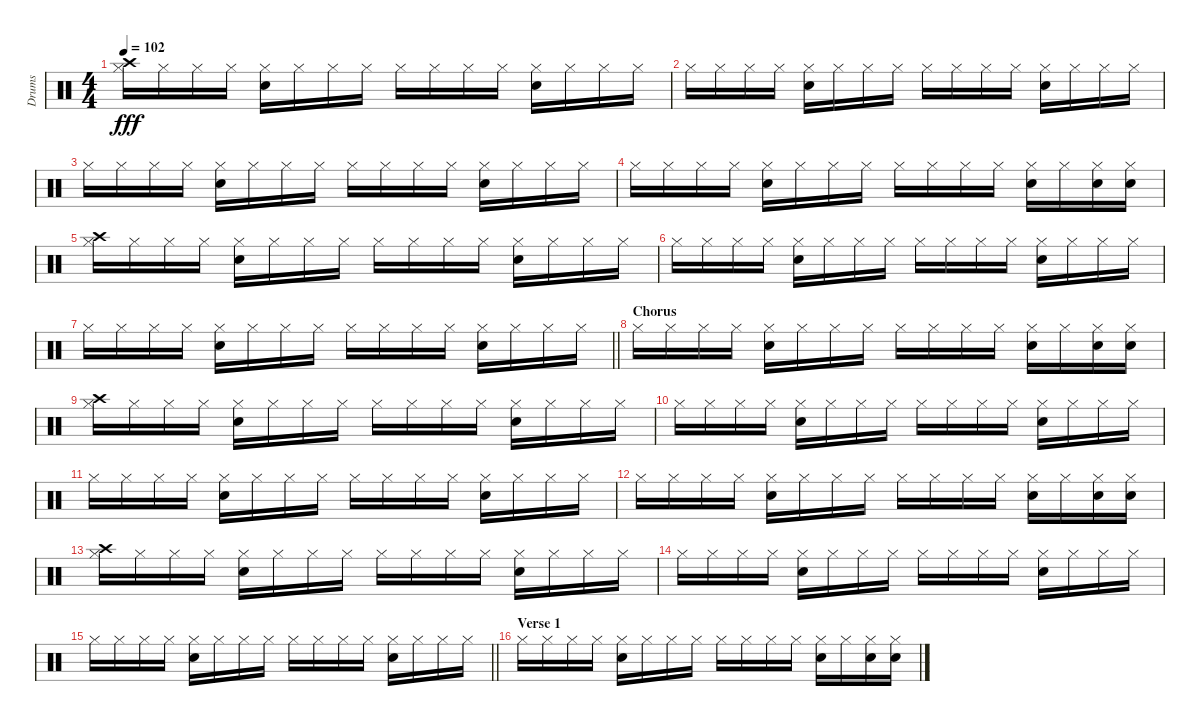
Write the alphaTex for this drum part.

\track ("Drums" "Drums") {instrument percussion}
\staff {score}
\articulation defaults
\ts (4 4)
\tempo 102
\clef neutral
\ks c
("Hi-Hat (closed)" "Crash high (hit)").16{dy fff} "Hi-Hat (closed)".16 "Hi-Hat (closed)".16 "Hi-Hat (closed)".16 ("Hi-Hat (closed)" "Hand Clap (hit)").16 "Hi-Hat (closed)".16 "Hi-Hat (closed)".16 "Hi-Hat (closed)".16 "Hi-Hat (closed)".16 "Hi-Hat (closed)".16 "Hi-Hat (closed)".16 "Hi-Hat (closed)".16 ("Hi-Hat (closed)" "Hand Clap (hit)").16 "Hi-Hat (closed)".16 "Hi-Hat (closed)".16 "Hi-Hat (closed)".16 |
"Hi-Hat (closed)".16 "Hi-Hat (closed)".16 "Hi-Hat (closed)".16 "Hi-Hat (closed)".16 ("Hi-Hat (closed)" "Hand Clap (hit)").16 "Hi-Hat (closed)".16 "Hi-Hat (closed)".16 "Hi-Hat (closed)".16 "Hi-Hat (closed)".16 "Hi-Hat (closed)".16 "Hi-Hat (closed)".16 "Hi-Hat (closed)".16 ("Hi-Hat (closed)" "Hand Clap (hit)").16 "Hi-Hat (closed)".16 "Hi-Hat (closed)".16 "Hi-Hat (closed)".16 |
"Hi-Hat (closed)".16 "Hi-Hat (closed)".16 "Hi-Hat (closed)".16 "Hi-Hat (closed)".16 ("Hi-Hat (closed)" "Hand Clap (hit)").16 "Hi-Hat (closed)".16 "Hi-Hat (closed)".16 "Hi-Hat (closed)".16 "Hi-Hat (closed)".16 "Hi-Hat (closed)".16 "Hi-Hat (closed)".16 "Hi-Hat (closed)".16 ("Hi-Hat (closed)" "Hand Clap (hit)").16 "Hi-Hat (closed)".16 "Hi-Hat (closed)".16 "Hi-Hat (closed)".16 |
"Hi-Hat (closed)".16 "Hi-Hat (closed)".16 "Hi-Hat (closed)".16 "Hi-Hat (closed)".16 ("Hi-Hat (closed)" "Hand Clap (hit)").16 "Hi-Hat (closed)".16 "Hi-Hat (closed)".16 "Hi-Hat (closed)".16 "Hi-Hat (closed)".16 "Hi-Hat (closed)".16 "Hi-Hat (closed)".16 "Hi-Hat (closed)".16 ("Hi-Hat (closed)" "Hand Clap (hit)").16 "Hi-Hat (closed)".16 ("Hi-Hat (closed)" "Hand Clap (hit)").16 ("Hi-Hat (closed)" "Hand Clap (hit)").16 |
("Hi-Hat (closed)" "Crash high (hit)").16 "Hi-Hat (closed)".16 "Hi-Hat (closed)".16 "Hi-Hat (closed)".16 ("Hi-Hat (closed)" "Hand Clap (hit)").16 "Hi-Hat (closed)".16 "Hi-Hat (closed)".16 "Hi-Hat (closed)".16 "Hi-Hat (closed)".16 "Hi-Hat (closed)".16 "Hi-Hat (closed)".16 "Hi-Hat (closed)".16 ("Hi-Hat (closed)" "Hand Clap (hit)").16 "Hi-Hat (closed)".16 "Hi-Hat (closed)".16 "Hi-Hat (closed)".16 |
"Hi-Hat (closed)".16 "Hi-Hat (closed)".16 "Hi-Hat (closed)".16 "Hi-Hat (closed)".16 ("Hi-Hat (closed)" "Hand Clap (hit)").16 "Hi-Hat (closed)".16 "Hi-Hat (closed)".16 "Hi-Hat (closed)".16 "Hi-Hat (closed)".16 "Hi-Hat (closed)".16 "Hi-Hat (closed)".16 "Hi-Hat (closed)".16 ("Hi-Hat (closed)" "Hand Clap (hit)").16 "Hi-Hat (closed)".16 "Hi-Hat (closed)".16 "Hi-Hat (closed)".16 |
\barLineRight lightlight "Hi-Hat (closed)".16 "Hi-Hat (closed)".16 "Hi-Hat (closed)".16 "Hi-Hat (closed)".16
("Hi-Hat (closed)" "Hand Clap (hit)").16 "Hi-Hat (closed)".16 "Hi-Hat (closed)".16 "Hi-Hat (closed)".16 "Hi-Hat (closed)".16 "Hi-Hat (closed)".16 "Hi-Hat (closed)".16 "Hi-Hat (closed)".16 ("Hi-Hat (closed)" "Hand Clap (hit)").16 "Hi-Hat (closed)".16 "Hi-Hat (closed)".16 "Hi-Hat (closed)".16 |
\section ("" "Chorus")
"Hi-Hat (closed)".16 "Hi-Hat (closed)".16 "Hi-Hat (closed)".16 "Hi-Hat (closed)".16 ("Hi-Hat (closed)" "Hand Clap (hit)").16 "Hi-Hat (closed)".16 "Hi-Hat (closed)".16 "Hi-Hat (closed)".16 "Hi-Hat (closed)".16 "Hi-Hat (closed)".16 "Hi-Hat (closed)".16 "Hi-Hat (closed)".16 ("Hi-Hat (closed)" "Hand Clap (hit)").16 "Hi-Hat (closed)".16 ("Hi-Hat (closed)" "Hand Clap (hit)").16 ("Hi-Hat (closed)" "Hand Clap (hit)").16 |
("Hi-Hat (closed)" "Crash high (hit)").16 "Hi-Hat (closed)".16 "Hi-Hat (closed)".16 "Hi-Hat (closed)".16 ("Hi-Hat (closed)" "Hand Clap (hit)").16 "Hi-Hat (closed)".16 "Hi-Hat (closed)".16 "Hi-Hat (closed)".16 "Hi-Hat (closed)".16 "Hi-Hat (closed)".16 "Hi-Hat (closed)".16 "Hi-Hat (closed)".16 ("Hi-Hat (closed)" "Hand Clap (hit)").16 "Hi-Hat (closed)".16 "Hi-Hat (closed)".16 "Hi-Hat (closed)".16 |
"Hi-Hat (closed)".16 "Hi-Hat (closed)".16 "Hi-Hat (closed)".16 "Hi-Hat (closed)".16 ("Hi-Hat (closed)" "Hand Clap (hit)").16 "Hi-Hat (closed)".16 "Hi-Hat (closed)".16 "Hi-Hat (closed)".16 "Hi-Hat (closed)".16 "Hi-Hat (closed)".16 "Hi-Hat (closed)".16 "Hi-Hat (closed)".16 ("Hi-Hat (closed)" "Hand Clap (hit)").16 "Hi-Hat (closed)".16 "Hi-Hat (closed)".16 "Hi-Hat (closed)".16 |
"Hi-Hat (closed)".16 "Hi-Hat (closed)".16 "Hi-Hat (closed)".16 "Hi-Hat (closed)".16 ("Hi-Hat (closed)" "Hand Clap (hit)").16 "Hi-Hat (closed)".16 "Hi-Hat (closed)".16 "Hi-Hat (closed)".16 "Hi-Hat (closed)".16 "Hi-Hat (closed)".16 "Hi-Hat (closed)".16 "Hi-Hat (closed)".16 ("Hi-Hat (closed)" "Hand Clap (hit)").16 "Hi-Hat (closed)".16 "Hi-Hat (closed)".16 "Hi-Hat (closed)".16 |
"Hi-Hat (closed)".16 "Hi-Hat (closed)".16 "Hi-Hat (closed)".16 "Hi-Hat (closed)".16 ("Hi-Hat (closed)" "Hand Clap (hit)").16 "Hi-Hat (closed)".16 "Hi-Hat (closed)".16 "Hi-Hat (closed)".16 "Hi-Hat (closed)".16 "Hi-Hat (closed)".16 "Hi-Hat (closed)".16 "Hi-Hat (closed)".16 ("Hi-Hat (closed)" "Hand Clap (hit)").16 "Hi-Hat (closed)".16 ("Hi-Hat (closed)" "Hand Clap (hit)").16 ("Hi-Hat (closed)" "Hand Clap (hit)").16 |
("Hi-Hat (closed)" "Crash high (hit)").16 "Hi-Hat (closed)".16 "Hi-Hat (closed)".16 "Hi-Hat (closed)".16 ("Hi-Hat (closed)" "Hand Clap (hit)").16 "Hi-Hat (closed)".16 "Hi-Hat (closed)".16 "Hi-Hat (closed)".16 "Hi-Hat (closed)".16 "Hi-Hat (closed)".16 "Hi-Hat (closed)".16 "Hi-Hat (closed)".16 ("Hi-Hat (closed)" "Hand Clap (hit)").16 "Hi-Hat (closed)".16 "Hi-Hat (closed)".16 "Hi-Hat (closed)".16 |
"Hi-Hat (closed)".16 "Hi-Hat (closed)".16 "Hi-Hat (closed)".16 "Hi-Hat (closed)".16 ("Hi-Hat (closed)" "Hand Clap (hit)").16 "Hi-Hat (closed)".16 "Hi-Hat (closed)".16 "Hi-Hat (closed)".16 "Hi-Hat (closed)".16 "Hi-Hat (closed)".16 "Hi-Hat (closed)".16 "Hi-Hat (closed)".16 ("Hi-Hat (closed)" "Hand Clap (hit)").16 "Hi-Hat (closed)".16 "Hi-Hat (closed)".16 "Hi-Hat (closed)".16 |
\barLineRight lightlight "Hi-Hat (closed)".16 "Hi-Hat (closed)".16 "Hi-Hat (closed)".16 "Hi-Hat (closed)".16
("Hi-Hat (closed)" "Hand Clap (hit)").16 "Hi-Hat (closed)".16 "Hi-Hat (closed)".16 "Hi-Hat (closed)".16 "Hi-Hat (closed)".16 "Hi-Hat (closed)".16 "Hi-Hat (closed)".16 "Hi-Hat (closed)".16 ("Hi-Hat (closed)" "Hand Clap (hit)").16 "Hi-Hat (closed)".16 "Hi-Hat (closed)".16 "Hi-Hat (closed)".16 |
\section ("" "Verse 1")
"Hi-Hat (closed)".16 "Hi-Hat (closed)".16 "Hi-Hat (closed)".16 "Hi-Hat (closed)".16 ("Hi-Hat (closed)" "Hand Clap (hit)").16 "Hi-Hat (closed)".16 "Hi-Hat (closed)".16 "Hi-Hat (closed)".16 "Hi-Hat (closed)".16 "Hi-Hat (closed)".16 "Hi-Hat (closed)".16 "Hi-Hat (closed)".16 ("Hi-Hat (closed)" "Hand Clap (hit)").16 "Hi-Hat (closed)".16 ("Hi-Hat (closed)" "Hand Clap (hit)").16 ("Hi-Hat (closed)" "Hand Clap (hit)").16
